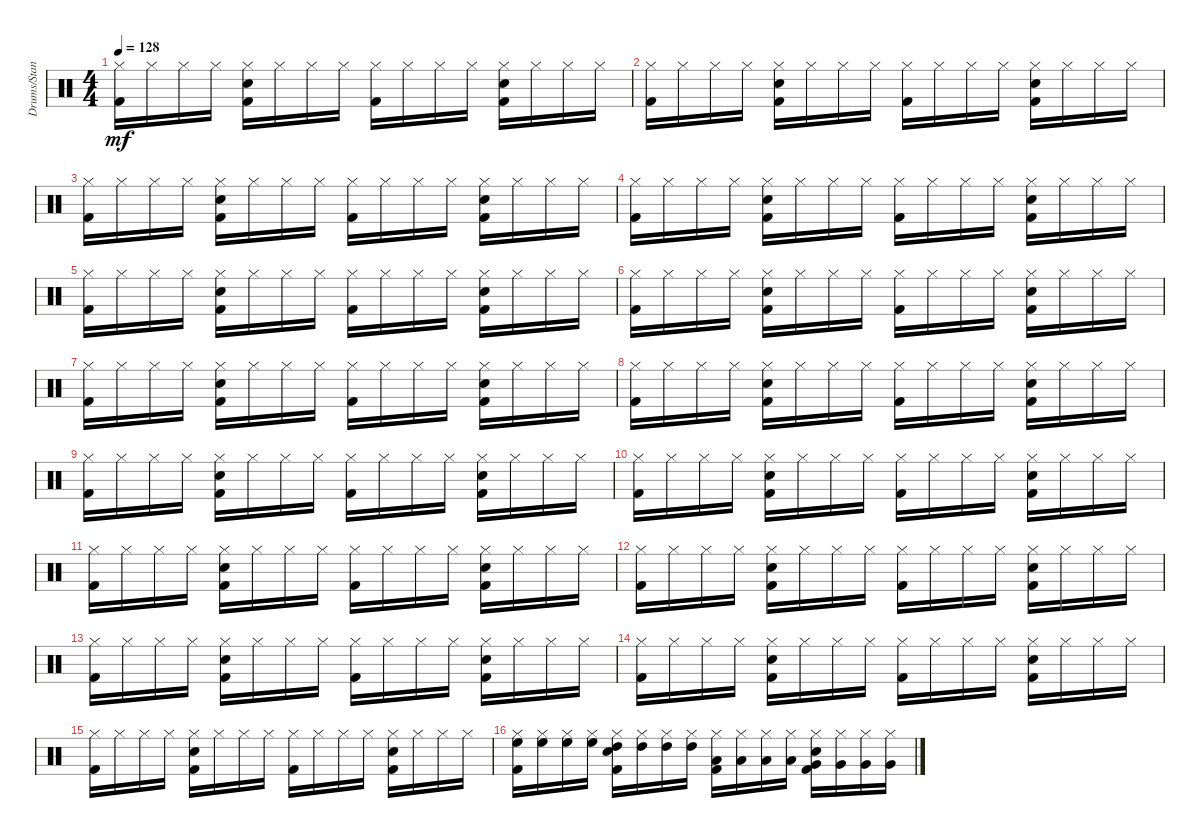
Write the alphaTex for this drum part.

\track ("Drums/Standard" "Drums/Stan") {instrument percussion}
\staff {score}
\articulation defaults
\ts (4 4)
\tempo 128
\clef neutral
\ks c
("Kick (hit) 2" "Hi-Hat (closed)").16{dy mf} "Hi-Hat (closed)".16 "Hi-Hat (closed)".16 "Hi-Hat (closed)".16 ("Snare (hit) 2" "Kick (hit) 2" "Hi-Hat (closed)").16 "Hi-Hat (closed)".16 "Hi-Hat (closed)".16 "Hi-Hat (closed)".16 ("Kick (hit) 2" "Hi-Hat (closed)").16 "Hi-Hat (closed)".16 "Hi-Hat (closed)".16 "Hi-Hat (closed)".16 ("Kick (hit) 2" "Hi-Hat (closed)" "Snare (hit) 2").16 "Hi-Hat (closed)".16 "Hi-Hat (closed)".16 "Hi-Hat (closed)".16 |
("Hi-Hat (closed)" "Kick (hit) 2").16 "Hi-Hat (closed)".16 "Hi-Hat (closed)".16 "Hi-Hat (closed)".16 ("Hi-Hat (closed)" "Kick (hit) 2" "Snare (hit) 2").16 "Hi-Hat (closed)".16 "Hi-Hat (closed)".16 "Hi-Hat (closed)".16 ("Kick (hit) 2" "Hi-Hat (closed)").16 "Hi-Hat (closed)".16 "Hi-Hat (closed)".16 "Hi-Hat (closed)".16 ("Kick (hit) 2" "Snare (hit) 2" "Hi-Hat (closed)").16 "Hi-Hat (closed)".16 "Hi-Hat (closed)".16 "Hi-Hat (closed)".16 |
("Hi-Hat (closed)" "Kick (hit) 2").16 "Hi-Hat (closed)".16 "Hi-Hat (closed)".16 "Hi-Hat (closed)".16 ("Hi-Hat (closed)" "Kick (hit) 2" "Snare (hit) 2").16 "Hi-Hat (closed)".16 "Hi-Hat (closed)".16 "Hi-Hat (closed)".16 ("Hi-Hat (closed)" "Kick (hit) 2").16 "Hi-Hat (closed)".16 "Hi-Hat (closed)".16 "Hi-Hat (closed)".16 ("Snare (hit) 2" "Hi-Hat (closed)" "Kick (hit) 2").16 "Hi-Hat (closed)".16 "Hi-Hat (closed)".16 "Hi-Hat (closed)".16 |
("Kick (hit) 2" "Hi-Hat (closed)").16 "Hi-Hat (closed)".16 "Hi-Hat (closed)".16 "Hi-Hat (closed)".16 ("Snare (hit) 2" "Kick (hit) 2" "Hi-Hat (closed)").16 "Hi-Hat (closed)".16 "Hi-Hat (closed)".16 "Hi-Hat (closed)".16 ("Hi-Hat (closed)" "Kick (hit) 2").16 "Hi-Hat (closed)".16 "Hi-Hat (closed)".16 "Hi-Hat (closed)".16 ("Hi-Hat (closed)" "Snare (hit) 2" "Kick (hit) 2").16 "Hi-Hat (closed)".16 "Hi-Hat (closed)".16 "Hi-Hat (closed)".16 |
("Kick (hit) 2" "Hi-Hat (closed)").16 "Hi-Hat (closed)".16 "Hi-Hat (closed)".16 "Hi-Hat (closed)".16 ("Snare (hit) 2" "Kick (hit) 2" "Hi-Hat (closed)").16 "Hi-Hat (closed)".16 "Hi-Hat (closed)".16 "Hi-Hat (closed)".16 ("Kick (hit) 2" "Hi-Hat (closed)").16 "Hi-Hat (closed)".16 "Hi-Hat (closed)".16 "Hi-Hat (closed)".16 ("Kick (hit) 2" "Hi-Hat (closed)" "Snare (hit) 2").16 "Hi-Hat (closed)".16 "Hi-Hat (closed)".16 "Hi-Hat (closed)".16 |
("Hi-Hat (closed)" "Kick (hit) 2").16 "Hi-Hat (closed)".16 "Hi-Hat (closed)".16 "Hi-Hat (closed)".16 ("Hi-Hat (closed)" "Kick (hit) 2" "Snare (hit) 2").16 "Hi-Hat (closed)".16 "Hi-Hat (closed)".16 "Hi-Hat (closed)".16 ("Kick (hit) 2" "Hi-Hat (closed)").16 "Hi-Hat (closed)".16 "Hi-Hat (closed)".16 "Hi-Hat (closed)".16 ("Kick (hit) 2" "Snare (hit) 2" "Hi-Hat (closed)").16 "Hi-Hat (closed)".16 "Hi-Hat (closed)".16 "Hi-Hat (closed)".16 |
("Hi-Hat (closed)" "Kick (hit) 2").16 "Hi-Hat (closed)".16 "Hi-Hat (closed)".16 "Hi-Hat (closed)".16 ("Hi-Hat (closed)" "Kick (hit) 2" "Snare (hit) 2").16 "Hi-Hat (closed)".16 "Hi-Hat (closed)".16 "Hi-Hat (closed)".16 ("Hi-Hat (closed)" "Kick (hit) 2").16 "Hi-Hat (closed)".16 "Hi-Hat (closed)".16 "Hi-Hat (closed)".16 ("Snare (hit) 2" "Hi-Hat (closed)" "Kick (hit) 2").16 "Hi-Hat (closed)".16 "Hi-Hat (closed)".16 "Hi-Hat (closed)".16 |
("Kick (hit) 2" "Hi-Hat (closed)").16 "Hi-Hat (closed)".16 "Hi-Hat (closed)".16 "Hi-Hat (closed)".16 ("Snare (hit) 2" "Kick (hit) 2" "Hi-Hat (closed)").16 "Hi-Hat (closed)".16 "Hi-Hat (closed)".16 "Hi-Hat (closed)".16 ("Hi-Hat (closed)" "Kick (hit) 2").16 "Hi-Hat (closed)".16 "Hi-Hat (closed)".16 "Hi-Hat (closed)".16 ("Hi-Hat (closed)" "Snare (hit) 2" "Kick (hit) 2").16 "Hi-Hat (closed)".16 "Hi-Hat (closed)".16 "Hi-Hat (closed)".16 |
("Kick (hit) 2" "Hi-Hat (closed)").16 "Hi-Hat (closed)".16 "Hi-Hat (closed)".16 "Hi-Hat (closed)".16 ("Snare (hit) 2" "Kick (hit) 2" "Hi-Hat (closed)").16 "Hi-Hat (closed)".16 "Hi-Hat (closed)".16 "Hi-Hat (closed)".16 ("Kick (hit) 2" "Hi-Hat (closed)").16 "Hi-Hat (closed)".16 "Hi-Hat (closed)".16 "Hi-Hat (closed)".16 ("Kick (hit) 2" "Hi-Hat (closed)" "Snare (hit) 2").16 "Hi-Hat (closed)".16 "Hi-Hat (closed)".16 "Hi-Hat (closed)".16 |
("Hi-Hat (closed)" "Kick (hit) 2").16 "Hi-Hat (closed)".16 "Hi-Hat (closed)".16 "Hi-Hat (closed)".16 ("Hi-Hat (closed)" "Kick (hit) 2" "Snare (hit) 2").16 "Hi-Hat (closed)".16 "Hi-Hat (closed)".16 "Hi-Hat (closed)".16 ("Kick (hit) 2" "Hi-Hat (closed)").16 "Hi-Hat (closed)".16 "Hi-Hat (closed)".16 "Hi-Hat (closed)".16 ("Kick (hit) 2" "Snare (hit) 2" "Hi-Hat (closed)").16 "Hi-Hat (closed)".16 "Hi-Hat (closed)".16 "Hi-Hat (closed)".16 |
("Hi-Hat (closed)" "Kick (hit) 2").16 "Hi-Hat (closed)".16 "Hi-Hat (closed)".16 "Hi-Hat (closed)".16 ("Hi-Hat (closed)" "Kick (hit) 2" "Snare (hit) 2").16 "Hi-Hat (closed)".16 "Hi-Hat (closed)".16 "Hi-Hat (closed)".16 ("Hi-Hat (closed)" "Kick (hit) 2").16 "Hi-Hat (closed)".16 "Hi-Hat (closed)".16 "Hi-Hat (closed)".16 ("Snare (hit) 2" "Hi-Hat (closed)" "Kick (hit) 2").16 "Hi-Hat (closed)".16 "Hi-Hat (closed)".16 "Hi-Hat (closed)".16 |
("Kick (hit) 2" "Hi-Hat (closed)").16 "Hi-Hat (closed)".16 "Hi-Hat (closed)".16 "Hi-Hat (closed)".16 ("Snare (hit) 2" "Kick (hit) 2" "Hi-Hat (closed)").16 "Hi-Hat (closed)".16 "Hi-Hat (closed)".16 "Hi-Hat (closed)".16 ("Hi-Hat (closed)" "Kick (hit) 2").16 "Hi-Hat (closed)".16 "Hi-Hat (closed)".16 "Hi-Hat (closed)".16 ("Hi-Hat (closed)" "Snare (hit) 2" "Kick (hit) 2").16 "Hi-Hat (closed)".16 "Hi-Hat (closed)".16 "Hi-Hat (closed)".16 |
("Kick (hit) 2" "Hi-Hat (closed)").16 "Hi-Hat (closed)".16 "Hi-Hat (closed)".16 "Hi-Hat (closed)".16 ("Snare (hit) 2" "Kick (hit) 2" "Hi-Hat (closed)").16 "Hi-Hat (closed)".16 "Hi-Hat (closed)".16 "Hi-Hat (closed)".16 ("Kick (hit) 2" "Hi-Hat (closed)").16 "Hi-Hat (closed)".16 "Hi-Hat (closed)".16 "Hi-Hat (closed)".16 ("Kick (hit) 2" "Hi-Hat (closed)" "Snare (hit) 2").16 "Hi-Hat (closed)".16 "Hi-Hat (closed)".16 "Hi-Hat (closed)".16 |
("Hi-Hat (closed)" "Kick (hit) 2").16 "Hi-Hat (closed)".16 "Hi-Hat (closed)".16 "Hi-Hat (closed)".16 ("Hi-Hat (closed)" "Kick (hit) 2" "Snare (hit) 2").16 "Hi-Hat (closed)".16 "Hi-Hat (closed)".16 "Hi-Hat (closed)".16 ("Kick (hit) 2" "Hi-Hat (closed)").16 "Hi-Hat (closed)".16 "Hi-Hat (closed)".16 "Hi-Hat (closed)".16 ("Kick (hit) 2" "Snare (hit) 2" "Hi-Hat (closed)").16 "Hi-Hat (closed)".16 "Hi-Hat (closed)".16 "Hi-Hat (closed)".16 |
("Hi-Hat (closed)" "Kick (hit) 2").16 "Hi-Hat (closed)".16 "Hi-Hat (closed)".16 "Hi-Hat (closed)".16 ("Hi-Hat (closed)" "Kick (hit) 2" "Snare (hit) 2").16 "Hi-Hat (closed)".16 "Hi-Hat (closed)".16 "Hi-Hat (closed)".16 ("Hi-Hat (closed)" "Kick (hit) 2").16 "Hi-Hat (closed)".16 "Hi-Hat (closed)".16 "Hi-Hat (closed)".16 ("Snare (hit) 2" "Hi-Hat (closed)" "Kick (hit) 2").16 "Hi-Hat (closed)".16 "Hi-Hat (closed)".16 "Hi-Hat (closed)".16 |
("Kick (hit) 2" "Hi-Hat (closed)" "High Floor Tom (hit)").16 ("Hi-Hat (closed)" "High Floor Tom (hit)").16 ("Hi-Hat (closed)" "High Floor Tom (hit)").16 ("Hi-Hat (closed)" "High Floor Tom (hit)").16 ("Snare (hit) 2" "Kick (hit) 2" "Hi-Hat (closed)" "High Tom (hit)").16 ("Hi-Hat (closed)" "High Tom (hit)").16 ("Hi-Hat (closed)" "High Tom (hit)").16 ("Hi-Hat (closed)" "High Tom (hit)").16 ("Hi-Hat (closed)" "Kick (hit) 2" "Low Tom (hit)").16 ("Hi-Hat (closed)" "Low Tom (hit)").16 ("Hi-Hat (closed)" "Low Tom (hit)").16 ("Hi-Hat (closed)" "Low Tom (hit)").16 ("Hi-Hat (closed)" "Snare (hit) 2" "Kick (hit) 2" "Very Low Tom (hit)").16 ("Hi-Hat (closed)" "Very Low Tom (hit)").16 ("Hi-Hat (closed)" "Very Low Tom (hit)").16 ("Hi-Hat (closed)" "Very Low Tom (hit)").16
